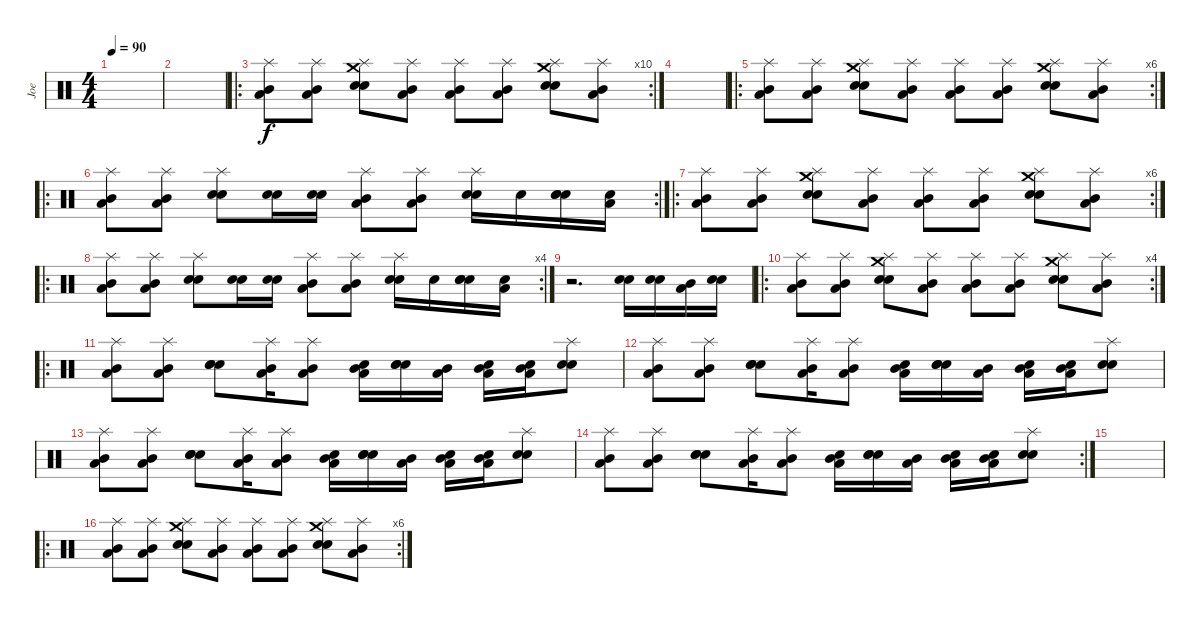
\track ("Joe" "Joe") {instrument percussion}
\staff {score}
\articulation defaults
\ts (4 4)
\tempo 90
\clef neutral
\ks c
|
|
\ro
\rc 10
("Splash (hit)" "Low Floor Tom (hit)" "Mid Tom (hit)").8 ("Splash (hit)" "Low Floor Tom (hit)" "Mid Tom (hit)").8 ("Splash (hit)" "Snare (hit) 2" "Snare (hit) 2" "Crash medium (hit)").8 ("Splash (hit)" "Low Floor Tom (hit)" "Mid Tom (hit)").8 ("Splash (hit)" "Low Floor Tom (hit)" "Mid Tom (hit)").8 ("Splash (hit)" "Low Floor Tom (hit)" "Mid Tom (hit)").8 ("Splash (hit)" "Snare (hit) 2" "Snare (hit) 2" "Crash medium (hit)").8 ("Splash (hit)" "Low Floor Tom (hit)" "Mid Tom (hit)").8 |
|
\ro
\rc 6
("Splash (hit)" "Low Floor Tom (hit)" "Mid Tom (hit)").8 ("Splash (hit)" "Low Floor Tom (hit)" "Mid Tom (hit)").8 ("Splash (hit)" "Snare (hit) 2" "Snare (hit) 2" "Crash medium (hit)").8 ("Splash (hit)" "Low Floor Tom (hit)" "Mid Tom (hit)").8 ("Splash (hit)" "Low Floor Tom (hit)" "Mid Tom (hit)").8 ("Splash (hit)" "Low Floor Tom (hit)" "Mid Tom (hit)").8 ("Splash (hit)" "Snare (hit) 2" "Snare (hit) 2" "Crash medium (hit)").8 ("Splash (hit)" "Low Floor Tom (hit)" "Mid Tom (hit)").8 |
\ro
\rc 2
("Splash (hit)" "Low Floor Tom (hit)" "Mid Tom (hit)").8 ("Splash (hit)" "Low Floor Tom (hit)" "Mid Tom (hit)").8 ("Splash (hit)" "Snare (hit) 2" "Snare (hit) 2").8 ("Snare (hit) 2" "Snare (hit) 2").16 ("Snare (hit) 2" "Snare (hit) 2").16 ("Splash (hit)" "Low Floor Tom (hit)" "Mid Tom (hit)").8 ("Splash (hit)" "Low Floor Tom (hit)" "Mid Tom (hit)").8 ("Splash (hit)" "Snare (hit) 2" "Snare (hit) 2").16 "Electric Snare (hit)".16 ("Snare (hit) 2" "Snare (hit) 2" "Electric Snare (hit)").16 ("Electric Snare (hit)" "Low Tom (hit)").16 |
\ro
\rc 6
("Splash (hit)" "Low Floor Tom (hit)" "Mid Tom (hit)").8 ("Splash (hit)" "Low Floor Tom (hit)" "Mid Tom (hit)").8 ("Splash (hit)" "Snare (hit) 2" "Snare (hit) 2" "Crash medium (hit)").8 ("Splash (hit)" "Low Floor Tom (hit)" "Mid Tom (hit)").8 ("Splash (hit)" "Low Floor Tom (hit)" "Mid Tom (hit)").8 ("Splash (hit)" "Low Floor Tom (hit)" "Mid Tom (hit)").8 ("Splash (hit)" "Snare (hit) 2" "Snare (hit) 2" "Crash medium (hit)").8 ("Splash (hit)" "Low Floor Tom (hit)" "Mid Tom (hit)").8 |
\ro
\rc 4
("Splash (hit)" "Low Floor Tom (hit)" "Mid Tom (hit)").8 ("Splash (hit)" "Low Floor Tom (hit)" "Mid Tom (hit)").8 ("Splash (hit)" "Snare (hit) 2" "Snare (hit) 2").8 ("Snare (hit) 2" "Snare (hit) 2").16 ("Snare (hit) 2" "Snare (hit) 2").16 ("Splash (hit)" "Low Floor Tom (hit)" "Mid Tom (hit)").8 ("Splash (hit)" "Low Floor Tom (hit)" "Mid Tom (hit)").8 ("Splash (hit)" "Snare (hit) 2" "Snare (hit) 2").16 "Electric Snare (hit)".16 ("Snare (hit) 2" "Snare (hit) 2" "Electric Snare (hit)").16 ("Electric Snare (hit)" "Low Tom (hit)").16 |
r.2{d} ("Snare (hit) 2" "Snare (hit) 2").16 ("Snare (hit) 2" "Snare (hit) 2").16 ("Low Floor Tom (hit)" "Mid Tom (hit)").16 ("Snare (hit) 2" "Snare (hit) 2").16 |
\ro
\rc 4
("Splash (hit)" "Low Floor Tom (hit)" "Mid Tom (hit)").8 ("Splash (hit)" "Low Floor Tom (hit)" "Mid Tom (hit)").8 ("Splash (hit)" "Snare (hit) 2" "Snare (hit) 2" "Crash medium (hit)").8 ("Splash (hit)" "Low Floor Tom (hit)" "Mid Tom (hit)").8 ("Splash (hit)" "Low Floor Tom (hit)" "Mid Tom (hit)").8 ("Splash (hit)" "Low Floor Tom (hit)" "Mid Tom (hit)").8 ("Splash (hit)" "Snare (hit) 2" "Snare (hit) 2" "Crash medium (hit)").8 ("Splash (hit)" "Low Floor Tom (hit)" "Mid Tom (hit)").8 |
\ro
("Splash (hit)" "Low Floor Tom (hit)" "Mid Tom (hit)").8 ("Splash (hit)" "Low Floor Tom (hit)" "Mid Tom (hit)").8 ("Electric Snare (hit)" "Snare (hit) 2" "Snare (hit) 2").8 ("Splash (hit)" "Low Floor Tom (hit)" "Mid Tom (hit)").16 ("Splash (hit)" "Low Floor Tom (hit)" "Mid Tom (hit)").8 ("Electric Snare (hit)" "Low Floor Tom (hit)" "Mid Tom (hit)").16 ("Electric Snare (hit)" "Snare (hit) 2" "Snare (hit) 2").16 ("Low Floor Tom (hit)" "Mid Tom (hit)").16 ("Electric Snare (hit)" "Low Floor Tom (hit)" "Mid Tom (hit)").16 ("Electric Snare (hit)" "Low Floor Tom (hit)" "Mid Tom (hit)").16 ("Splash (hit)" "Snare (hit) 2" "Snare (hit) 2").8 |
("Splash (hit)" "Low Floor Tom (hit)" "Mid Tom (hit)").8 ("Splash (hit)" "Low Floor Tom (hit)" "Mid Tom (hit)").8 ("Electric Snare (hit)" "Snare (hit) 2" "Snare (hit) 2").8 ("Splash (hit)" "Low Floor Tom (hit)" "Mid Tom (hit)").16 ("Splash (hit)" "Low Floor Tom (hit)" "Mid Tom (hit)").8 ("Electric Snare (hit)" "Low Floor Tom (hit)" "Mid Tom (hit)").16 ("Electric Snare (hit)" "Snare (hit) 2" "Snare (hit) 2").16 ("Low Floor Tom (hit)" "Mid Tom (hit)").16 ("Electric Snare (hit)" "Low Floor Tom (hit)" "Mid Tom (hit)").16 ("Electric Snare (hit)" "Low Floor Tom (hit)" "Mid Tom (hit)").16 ("Splash (hit)" "Snare (hit) 2" "Snare (hit) 2").8 |
("Splash (hit)" "Low Floor Tom (hit)" "Mid Tom (hit)").8 ("Splash (hit)" "Low Floor Tom (hit)" "Mid Tom (hit)").8 ("Electric Snare (hit)" "Snare (hit) 2" "Snare (hit) 2").8 ("Splash (hit)" "Low Floor Tom (hit)" "Mid Tom (hit)").16 ("Splash (hit)" "Low Floor Tom (hit)" "Mid Tom (hit)").8 ("Electric Snare (hit)" "Low Floor Tom (hit)" "Mid Tom (hit)").16 ("Electric Snare (hit)" "Snare (hit) 2" "Snare (hit) 2").16 ("Low Floor Tom (hit)" "Mid Tom (hit)").16 ("Electric Snare (hit)" "Low Floor Tom (hit)" "Mid Tom (hit)").16 ("Electric Snare (hit)" "Low Floor Tom (hit)" "Mid Tom (hit)").16 ("Splash (hit)" "Snare (hit) 2" "Snare (hit) 2").8 |
\rc 2
("Splash (hit)" "Low Floor Tom (hit)" "Mid Tom (hit)").8 ("Splash (hit)" "Low Floor Tom (hit)" "Mid Tom (hit)").8 ("Electric Snare (hit)" "Snare (hit) 2" "Snare (hit) 2").8 ("Splash (hit)" "Low Floor Tom (hit)" "Mid Tom (hit)").16 ("Splash (hit)" "Low Floor Tom (hit)" "Mid Tom (hit)").8 ("Electric Snare (hit)" "Low Floor Tom (hit)" "Mid Tom (hit)").16 ("Electric Snare (hit)" "Snare (hit) 2" "Snare (hit) 2").16 ("Low Floor Tom (hit)" "Mid Tom (hit)").16 ("Electric Snare (hit)" "Low Floor Tom (hit)" "Mid Tom (hit)").16 ("Electric Snare (hit)" "Low Floor Tom (hit)" "Mid Tom (hit)").16 ("Splash (hit)" "Snare (hit) 2" "Snare (hit) 2").8 |
|
\ro
\rc 6
("Splash (hit)" "Low Floor Tom (hit)" "Mid Tom (hit)").8 ("Splash (hit)" "Low Floor Tom (hit)" "Mid Tom (hit)").8 ("Splash (hit)" "Snare (hit) 2" "Snare (hit) 2" "Crash medium (hit)").8 ("Splash (hit)" "Low Floor Tom (hit)" "Mid Tom (hit)").8 ("Splash (hit)" "Low Floor Tom (hit)" "Mid Tom (hit)").8 ("Splash (hit)" "Low Floor Tom (hit)" "Mid Tom (hit)").8 ("Splash (hit)" "Snare (hit) 2" "Snare (hit) 2" "Crash medium (hit)").8 ("Splash (hit)" "Low Floor Tom (hit)" "Mid Tom (hit)").8
